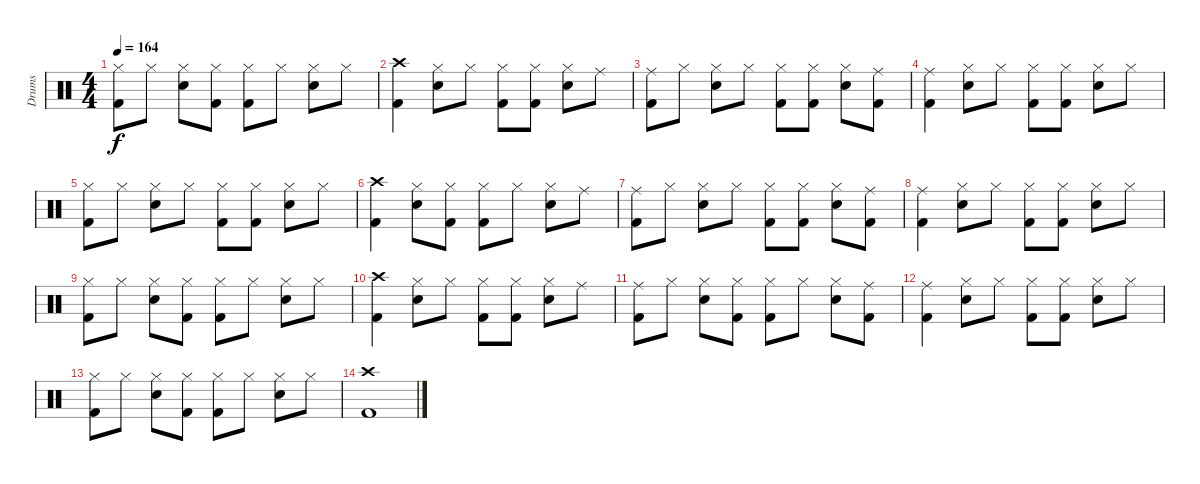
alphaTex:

\track ("Drums" "Drums") {instrument percussion}
\staff {score}
\articulation defaults
\ts (4 4)
\tempo 164
\clef neutral
\ks c
("Hi-Hat (closed)" "Kick (hit) 2").8{dy f} "Hi-Hat (closed)".8 ("Hi-Hat (closed)" "Snare (hit) 2").8 ("Hi-Hat (closed)" "Kick (hit) 2").8 ("Hi-Hat (closed)" "Kick (hit) 2").8 "Hi-Hat (closed)".8 ("Hi-Hat (closed)" "Snare (hit) 2").8 "Hi-Hat (closed)".8 |
("Crash high (hit)" "Kick (hit) 2").4 ("Hi-Hat (closed)" "Snare (hit) 2").8 "Hi-Hat (closed)".8 ("Hi-Hat (closed)" "Kick (hit) 2").8 ("Hi-Hat (closed)" "Kick (hit) 2").8 ("Hi-Hat (closed)" "Snare (hit) 2").8 "Ride (middle)".8 |
("Ride (middle)" "Kick (hit) 2").8 "Hi-Hat (closed)".8 ("Hi-Hat (closed)" "Snare (hit) 2").8 "Hi-Hat (closed)".8 ("Hi-Hat (closed)" "Kick (hit) 2").8 ("Hi-Hat (closed)" "Kick (hit) 2").8 ("Hi-Hat (closed)" "Snare (hit) 2").8 ("Ride (middle)" "Kick (hit) 2").8 |
("Ride (middle)" "Kick (hit) 2").4 ("Hi-Hat (closed)" "Snare (hit) 2").8 "Hi-Hat (closed)".8 ("Hi-Hat (closed)" "Kick (hit) 2").8 ("Hi-Hat (closed)" "Kick (hit) 2").8 ("Hi-Hat (closed)" "Snare (hit) 2").8 "Hi-Hat (closed)".8 |
("Hi-Hat (closed)" "Kick (hit) 2").8 "Hi-Hat (closed)".8 ("Hi-Hat (closed)" "Snare (hit) 2").8 "Hi-Hat (closed)".8 ("Hi-Hat (closed)" "Kick (hit) 2").8 ("Hi-Hat (closed)" "Kick (hit) 2").8 ("Hi-Hat (closed)" "Snare (hit) 2").8 "Hi-Hat (closed)".8 |
("Crash high (hit)" "Kick (hit) 2").4 ("Hi-Hat (closed)" "Snare (hit) 2").8 ("Hi-Hat (closed)" "Kick (hit) 2").8 ("Hi-Hat (closed)" "Kick (hit) 2").8 "Hi-Hat (closed)".8 ("Hi-Hat (closed)" "Snare (hit) 2").8 "Ride (middle)".8 |
("Ride (middle)" "Kick (hit) 2").8 "Hi-Hat (closed)".8 ("Hi-Hat (closed)" "Snare (hit) 2").8 "Hi-Hat (closed)".8 ("Hi-Hat (closed)" "Kick (hit) 2").8 ("Hi-Hat (closed)" "Kick (hit) 2").8 ("Hi-Hat (closed)" "Snare (hit) 2").8 ("Ride (middle)" "Kick (hit) 2").8 |
("Ride (middle)" "Kick (hit) 2").4 ("Hi-Hat (closed)" "Snare (hit) 2").8 "Hi-Hat (closed)".8 ("Hi-Hat (closed)" "Kick (hit) 2").8 ("Hi-Hat (closed)" "Kick (hit) 2").8 ("Hi-Hat (closed)" "Snare (hit) 2").8 "Hi-Hat (closed)".8 |
("Hi-Hat (closed)" "Kick (hit) 2").8 "Hi-Hat (closed)".8 ("Hi-Hat (closed)" "Snare (hit) 2").8 ("Hi-Hat (closed)" "Kick (hit) 2").8 ("Hi-Hat (closed)" "Kick (hit) 2").8 "Hi-Hat (closed)".8 ("Hi-Hat (closed)" "Snare (hit) 2").8 "Hi-Hat (closed)".8 |
("Crash high (hit)" "Kick (hit) 2").4 ("Hi-Hat (closed)" "Snare (hit) 2").8 "Hi-Hat (closed)".8 ("Hi-Hat (closed)" "Kick (hit) 2").8 ("Hi-Hat (closed)" "Kick (hit) 2").8 ("Hi-Hat (closed)" "Snare (hit) 2").8 "Ride (middle)".8 |
("Ride (middle)" "Kick (hit) 2").8 "Hi-Hat (closed)".8 ("Hi-Hat (closed)" "Snare (hit) 2").8 ("Hi-Hat (closed)" "Kick (hit) 2").8 ("Hi-Hat (closed)" "Kick (hit) 2").8 "Hi-Hat (closed)".8 ("Hi-Hat (closed)" "Snare (hit) 2").8 ("Ride (middle)" "Kick (hit) 2").8 |
("Ride (middle)" "Kick (hit) 2").4 ("Hi-Hat (closed)" "Snare (hit) 2").8 "Hi-Hat (closed)".8 ("Hi-Hat (closed)" "Kick (hit) 2").8 ("Hi-Hat (closed)" "Kick (hit) 2").8 ("Hi-Hat (closed)" "Snare (hit) 2").8 "Hi-Hat (closed)".8 |
("Hi-Hat (closed)" "Kick (hit) 2").8 "Hi-Hat (closed)".8 ("Hi-Hat (closed)" "Snare (hit) 2").8 ("Hi-Hat (closed)" "Kick (hit) 2").8 ("Hi-Hat (closed)" "Kick (hit) 2").8 "Hi-Hat (closed)".8 ("Hi-Hat (closed)" "Snare (hit) 2").8 "Hi-Hat (closed)".8 |
("Crash high (hit)" "Kick (hit) 2").1
